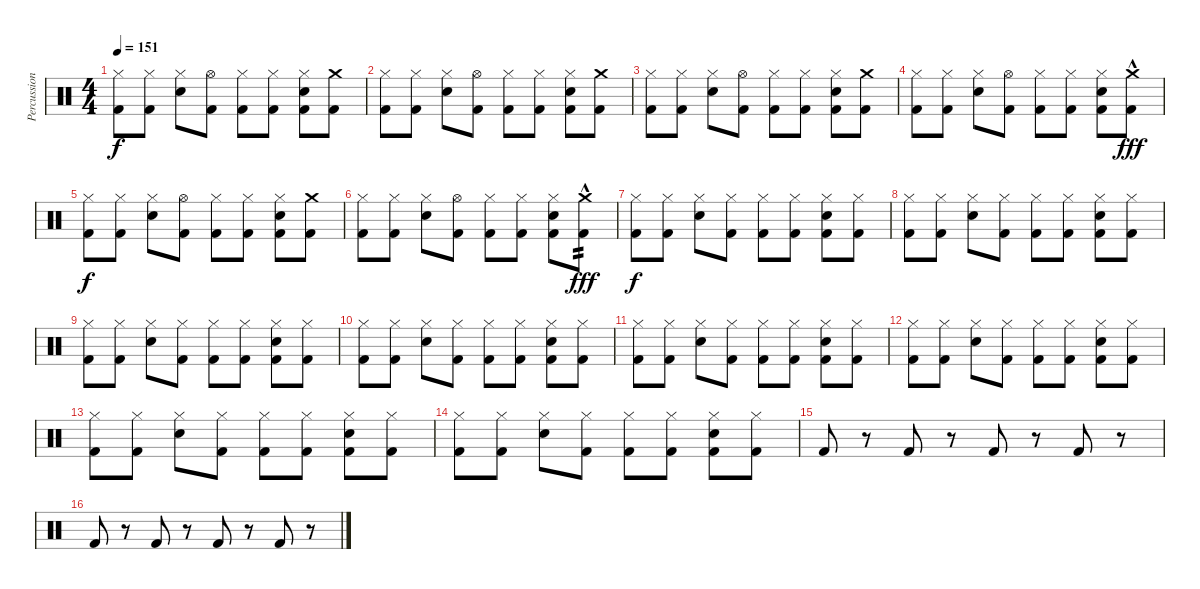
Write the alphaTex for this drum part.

\track ("Percussion" "Percussion") {instrument percussion bank 1}
\staff {score}
\articulation defaults
\ts (4 4)
\tempo 151
\clef neutral
\ks c
("Hi-Hat (closed)" "Kick (hit) 2").8{dy f} ("Hi-Hat (closed)" "Kick (hit) 2").8 ("Snare (hit) 2" "Hi-Hat (closed)").8 ("Hi-Hat (open)" "Kick (hit) 2").8 ("Hi-Hat (closed)" "Kick (hit) 2").8 ("Hi-Hat (closed)" "Kick (hit) 2").8 ("Snare (hit) 2" "Hi-Hat (closed)" "Kick (hit) 2").8 ("Crash medium (hit)" "Kick (hit) 2").8 |
("Hi-Hat (closed)" "Kick (hit) 2").8 ("Hi-Hat (closed)" "Kick (hit) 2").8 ("Snare (hit) 2" "Hi-Hat (closed)").8 ("Hi-Hat (open)" "Kick (hit) 2").8 ("Hi-Hat (closed)" "Kick (hit) 2").8 ("Hi-Hat (closed)" "Kick (hit) 2").8 ("Snare (hit) 2" "Hi-Hat (closed)" "Kick (hit) 2").8 ("Crash medium (hit)" "Kick (hit) 2").8 |
("Hi-Hat (closed)" "Kick (hit) 2").8 ("Hi-Hat (closed)" "Kick (hit) 2").8 ("Snare (hit) 2" "Hi-Hat (closed)").8 ("Hi-Hat (open)" "Kick (hit) 2").8 ("Hi-Hat (closed)" "Kick (hit) 2").8 ("Hi-Hat (closed)" "Kick (hit) 2").8 ("Snare (hit) 2" "Hi-Hat (closed)" "Kick (hit) 2").8 ("Crash medium (hit)" "Kick (hit) 2").8 |
("Hi-Hat (closed)" "Kick (hit) 2").8 ("Hi-Hat (closed)" "Kick (hit) 2").8 ("Snare (hit) 2" "Hi-Hat (closed)").8 ("Hi-Hat (open)" "Kick (hit) 2").8 ("Hi-Hat (closed)" "Kick (hit) 2").8 ("Hi-Hat (closed)" "Kick (hit) 2").8 ("Snare (hit) 2" "Hi-Hat (closed)" "Kick (hit) 2").8 ("Crash medium (hit)"{hac} "Kick (hit) 2").8{dy fff} |
("Hi-Hat (closed)" "Kick (hit) 2").8{dy f} ("Hi-Hat (closed)" "Kick (hit) 2").8 ("Snare (hit) 2" "Hi-Hat (closed)").8 ("Hi-Hat (open)" "Kick (hit) 2").8 ("Hi-Hat (closed)" "Kick (hit) 2").8 ("Hi-Hat (closed)" "Kick (hit) 2").8 ("Snare (hit) 2" "Hi-Hat (closed)" "Kick (hit) 2").8 ("Crash medium (hit)" "Kick (hit) 2").8 |
("Hi-Hat (closed)" "Kick (hit) 2").8 ("Hi-Hat (closed)" "Kick (hit) 2").8 ("Snare (hit) 2" "Hi-Hat (closed)").8 ("Hi-Hat (open)" "Kick (hit) 2").8 ("Hi-Hat (closed)" "Kick (hit) 2").8 ("Hi-Hat (closed)" "Kick (hit) 2").8 ("Snare (hit) 2" "Hi-Hat (closed)" "Kick (hit) 2").8 ("Crash medium (hit)"{hac} "Kick (hit) 2").8{tp 2 dy fff} |
("Hi-Hat (closed)" "Kick (hit) 2").8{dy f} ("Hi-Hat (closed)" "Kick (hit) 2").8 ("Snare (hit) 2" "Hi-Hat (closed)").8 ("Hi-Hat (closed)" "Kick (hit) 2").8 ("Hi-Hat (closed)" "Kick (hit) 2").8 ("Hi-Hat (closed)" "Kick (hit) 2").8 ("Snare (hit) 2" "Hi-Hat (closed)" "Kick (hit) 2").8 ("Hi-Hat (closed)" "Kick (hit) 2").8 |
("Hi-Hat (closed)" "Kick (hit) 2").8 ("Hi-Hat (closed)" "Kick (hit) 2").8 ("Snare (hit) 2" "Hi-Hat (closed)").8 ("Hi-Hat (closed)" "Kick (hit) 2").8 ("Hi-Hat (closed)" "Kick (hit) 2").8 ("Hi-Hat (closed)" "Kick (hit) 2").8 ("Snare (hit) 2" "Hi-Hat (closed)" "Kick (hit) 2").8 ("Hi-Hat (closed)" "Kick (hit) 2").8 |
("Hi-Hat (closed)" "Kick (hit) 2").8 ("Hi-Hat (closed)" "Kick (hit) 2").8 ("Snare (hit) 2" "Hi-Hat (closed)").8 ("Hi-Hat (closed)" "Kick (hit) 2").8 ("Hi-Hat (closed)" "Kick (hit) 2").8 ("Hi-Hat (closed)" "Kick (hit) 2").8 ("Snare (hit) 2" "Hi-Hat (closed)" "Kick (hit) 2").8 ("Hi-Hat (closed)" "Kick (hit) 2").8 |
("Hi-Hat (closed)" "Kick (hit) 2").8 ("Hi-Hat (closed)" "Kick (hit) 2").8 ("Snare (hit) 2" "Hi-Hat (closed)").8 ("Hi-Hat (closed)" "Kick (hit) 2").8 ("Hi-Hat (closed)" "Kick (hit) 2").8 ("Hi-Hat (closed)" "Kick (hit) 2").8 ("Snare (hit) 2" "Hi-Hat (closed)" "Kick (hit) 2").8 ("Hi-Hat (closed)" "Kick (hit) 2").8 |
("Hi-Hat (closed)" "Kick (hit) 2").8 ("Hi-Hat (closed)" "Kick (hit) 2").8 ("Snare (hit) 2" "Hi-Hat (closed)").8 ("Hi-Hat (closed)" "Kick (hit) 2").8 ("Hi-Hat (closed)" "Kick (hit) 2").8 ("Hi-Hat (closed)" "Kick (hit) 2").8 ("Snare (hit) 2" "Hi-Hat (closed)" "Kick (hit) 2").8 ("Hi-Hat (closed)" "Kick (hit) 2").8 |
("Hi-Hat (closed)" "Kick (hit) 2").8 ("Hi-Hat (closed)" "Kick (hit) 2").8 ("Snare (hit) 2" "Hi-Hat (closed)").8 ("Hi-Hat (closed)" "Kick (hit) 2").8 ("Hi-Hat (closed)" "Kick (hit) 2").8 ("Hi-Hat (closed)" "Kick (hit) 2").8 ("Snare (hit) 2" "Hi-Hat (closed)" "Kick (hit) 2").8 ("Hi-Hat (closed)" "Kick (hit) 2").8 |
("Hi-Hat (closed)" "Kick (hit) 2").8 ("Hi-Hat (closed)" "Kick (hit) 2").8 ("Snare (hit) 2" "Hi-Hat (closed)").8 ("Hi-Hat (closed)" "Kick (hit) 2").8 ("Hi-Hat (closed)" "Kick (hit) 2").8 ("Hi-Hat (closed)" "Kick (hit) 2").8 ("Snare (hit) 2" "Hi-Hat (closed)" "Kick (hit) 2").8 ("Hi-Hat (closed)" "Kick (hit) 2").8 |
("Hi-Hat (closed)" "Kick (hit) 2").8 ("Hi-Hat (closed)" "Kick (hit) 2").8 ("Snare (hit) 2" "Hi-Hat (closed)").8 ("Hi-Hat (closed)" "Kick (hit) 2").8 ("Hi-Hat (closed)" "Kick (hit) 2").8 ("Hi-Hat (closed)" "Kick (hit) 2").8 ("Snare (hit) 2" "Hi-Hat (closed)" "Kick (hit) 2").8 ("Hi-Hat (closed)" "Kick (hit) 2").8 |
"Kick (hit) 2".8 r.8 "Kick (hit) 2".8 r.8 "Kick (hit) 2".8 r.8 "Kick (hit) 2".8 r.8 |
"Kick (hit) 2".8 r.8 "Kick (hit) 2".8 r.8 "Kick (hit) 2".8 r.8 "Kick (hit) 2".8 r.8
